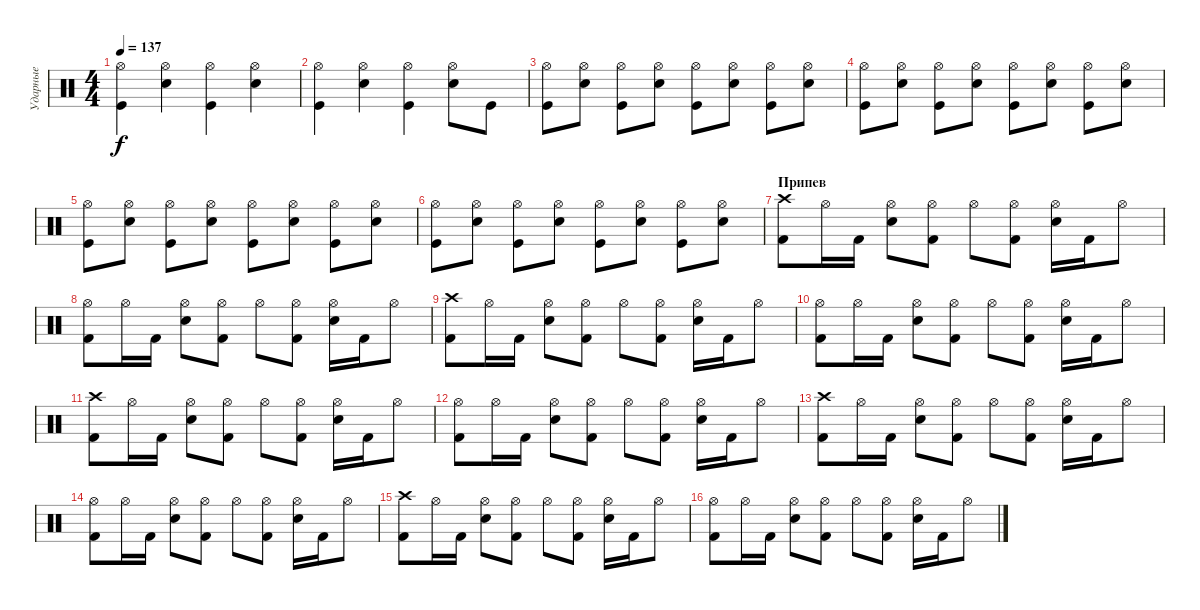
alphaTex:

\track ("Ударные" "Ударные") {instrument percussion}
\staff {score}
\articulation defaults
\ts (4 4)
\tempo 137
\clef neutral
\ks c
("Hi-Hat (open)" "Kick (hit)").4{dy f} ("Hi-Hat (open)" "Electric Snare (hit)").4 ("Hi-Hat (open)" "Kick (hit)").4 ("Hi-Hat (open)" "Electric Snare (hit)").4 |
("Hi-Hat (open)" "Kick (hit)").4 ("Hi-Hat (open)" "Electric Snare (hit)").4 ("Hi-Hat (open)" "Kick (hit)").4 ("Hi-Hat (open)" "Electric Snare (hit)").8 "Kick (hit)".8 |
("Hi-Hat (open)" "Kick (hit)").8 ("Hi-Hat (open)" "Snare (hit) 2").8 ("Hi-Hat (open)" "Kick (hit)").8 ("Hi-Hat (open)" "Snare (hit) 2").8 ("Hi-Hat (open)" "Kick (hit)").8 ("Hi-Hat (open)" "Snare (hit) 2").8 ("Hi-Hat (open)" "Kick (hit)").8 ("Hi-Hat (open)" "Snare (hit) 2").8 |
("Hi-Hat (open)" "Kick (hit)").8 ("Hi-Hat (open)" "Snare (hit) 2").8 ("Hi-Hat (open)" "Kick (hit)").8 ("Hi-Hat (open)" "Snare (hit) 2").8 ("Hi-Hat (open)" "Kick (hit)").8 ("Hi-Hat (open)" "Snare (hit) 2").8 ("Hi-Hat (open)" "Kick (hit)").8 ("Hi-Hat (open)" "Snare (hit) 2").8 |
("Hi-Hat (open)" "Kick (hit)").8 ("Hi-Hat (open)" "Snare (hit) 2").8 ("Hi-Hat (open)" "Kick (hit)").8 ("Hi-Hat (open)" "Snare (hit) 2").8 ("Hi-Hat (open)" "Kick (hit)").8 ("Hi-Hat (open)" "Snare (hit) 2").8 ("Hi-Hat (open)" "Kick (hit)").8 ("Hi-Hat (open)" "Snare (hit) 2").8 |
("Hi-Hat (open)" "Kick (hit)").8 ("Hi-Hat (open)" "Snare (hit) 2").8 ("Hi-Hat (open)" "Kick (hit)").8 ("Hi-Hat (open)" "Snare (hit) 2").8 ("Hi-Hat (open)" "Kick (hit)").8 ("Hi-Hat (open)" "Snare (hit) 2").8 ("Hi-Hat (open)" "Kick (hit)").8 ("Hi-Hat (open)" "Snare (hit) 2").8 |
\section ("" "Припев")
("Crash high (hit)" "Kick (hit) 2").8 "Hi-Hat (open)".16 "Kick (hit) 2".16 ("Hi-Hat (open)" "Electric Snare (hit)").8 ("Hi-Hat (open)" "Kick (hit) 2").8 "Hi-Hat (open)".8 ("Hi-Hat (open)" "Kick (hit) 2").8 ("Hi-Hat (open)" "Electric Snare (hit)").16 "Kick (hit) 2".16 "Hi-Hat (open)".8 |
("Hi-Hat (open)" "Kick (hit) 2").8 "Hi-Hat (open)".16 "Kick (hit) 2".16 ("Hi-Hat (open)" "Electric Snare (hit)").8 ("Hi-Hat (open)" "Kick (hit) 2").8 "Hi-Hat (open)".8 ("Hi-Hat (open)" "Kick (hit) 2").8 ("Hi-Hat (open)" "Electric Snare (hit)").16 "Kick (hit) 2".16 "Hi-Hat (open)".8 |
("Crash high (hit)" "Kick (hit) 2").8 "Hi-Hat (open)".16 "Kick (hit) 2".16 ("Hi-Hat (open)" "Electric Snare (hit)").8 ("Hi-Hat (open)" "Kick (hit) 2").8 "Hi-Hat (open)".8 ("Hi-Hat (open)" "Kick (hit) 2").8 ("Hi-Hat (open)" "Electric Snare (hit)").16 "Kick (hit) 2".16 "Hi-Hat (open)".8 |
("Hi-Hat (open)" "Kick (hit) 2").8 "Hi-Hat (open)".16 "Kick (hit) 2".16 ("Hi-Hat (open)" "Electric Snare (hit)").8 ("Hi-Hat (open)" "Kick (hit) 2").8 "Hi-Hat (open)".8 ("Hi-Hat (open)" "Kick (hit) 2").8 ("Hi-Hat (open)" "Electric Snare (hit)").16 "Kick (hit) 2".16 "Hi-Hat (open)".8 |
("Crash high (hit)" "Kick (hit) 2").8 "Hi-Hat (open)".16 "Kick (hit) 2".16 ("Hi-Hat (open)" "Electric Snare (hit)").8 ("Hi-Hat (open)" "Kick (hit) 2").8 "Hi-Hat (open)".8 ("Hi-Hat (open)" "Kick (hit) 2").8 ("Hi-Hat (open)" "Electric Snare (hit)").16 "Kick (hit) 2".16 "Hi-Hat (open)".8 |
("Hi-Hat (open)" "Kick (hit) 2").8 "Hi-Hat (open)".16 "Kick (hit) 2".16 ("Hi-Hat (open)" "Electric Snare (hit)").8 ("Hi-Hat (open)" "Kick (hit) 2").8 "Hi-Hat (open)".8 ("Hi-Hat (open)" "Kick (hit) 2").8 ("Hi-Hat (open)" "Electric Snare (hit)").16 "Kick (hit) 2".16 "Hi-Hat (open)".8 |
("Crash high (hit)" "Kick (hit) 2").8 "Hi-Hat (open)".16 "Kick (hit) 2".16 ("Hi-Hat (open)" "Electric Snare (hit)").8 ("Hi-Hat (open)" "Kick (hit) 2").8 "Hi-Hat (open)".8 ("Hi-Hat (open)" "Kick (hit) 2").8 ("Hi-Hat (open)" "Electric Snare (hit)").16 "Kick (hit) 2".16 "Hi-Hat (open)".8 |
("Hi-Hat (open)" "Kick (hit) 2").8 "Hi-Hat (open)".16 "Kick (hit) 2".16 ("Hi-Hat (open)" "Electric Snare (hit)").8 ("Hi-Hat (open)" "Kick (hit) 2").8 "Hi-Hat (open)".8 ("Hi-Hat (open)" "Kick (hit) 2").8 ("Hi-Hat (open)" "Electric Snare (hit)").16 "Kick (hit) 2".16 "Hi-Hat (open)".8 |
("Crash high (hit)" "Kick (hit) 2").8 "Hi-Hat (open)".16 "Kick (hit) 2".16 ("Hi-Hat (open)" "Electric Snare (hit)").8 ("Hi-Hat (open)" "Kick (hit) 2").8 "Hi-Hat (open)".8 ("Hi-Hat (open)" "Kick (hit) 2").8 ("Hi-Hat (open)" "Electric Snare (hit)").16 "Kick (hit) 2".16 "Hi-Hat (open)".8 |
("Hi-Hat (open)" "Kick (hit) 2").8 "Hi-Hat (open)".16 "Kick (hit) 2".16 ("Hi-Hat (open)" "Electric Snare (hit)").8 ("Hi-Hat (open)" "Kick (hit) 2").8 "Hi-Hat (open)".8 ("Hi-Hat (open)" "Kick (hit) 2").8 ("Hi-Hat (open)" "Electric Snare (hit)").16 "Kick (hit) 2".16 "Hi-Hat (open)".8
